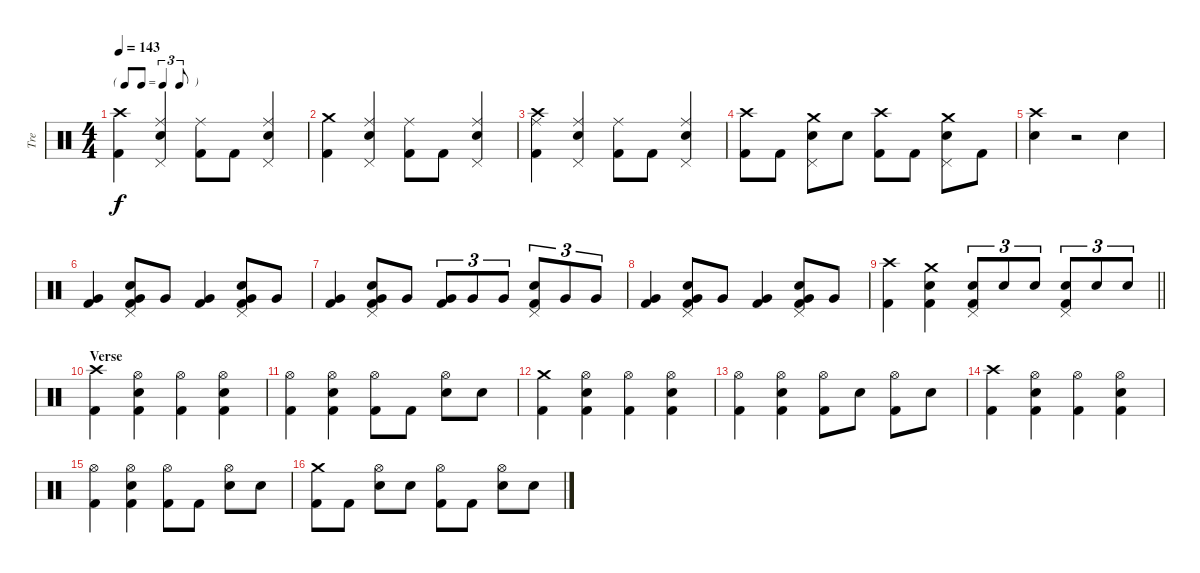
\track ("Tre" "Tre") {instrument percussion}
\staff {score}
\articulation defaults
\ts (4 4)
\tf triplet8th
\tempo 143
\clef neutral
\ks c
("Crash high (hit)" "Kick (hit) 2").4{dy f} ("Ride (middle)" "Snare (hit) 2" "Pedal Hi-Hat (hit)").4 ("Ride (middle)" "Kick (hit) 2").8 "Kick (hit) 2".8 ("Ride (middle)" "Snare (hit) 2" "Pedal Hi-Hat (hit)").4 |
("Crash medium (hit)" "Kick (hit) 2").4 ("Ride (middle)" "Snare (hit) 2" "Pedal Hi-Hat (hit)").4 ("Ride (middle)" "Kick (hit) 2").8 "Kick (hit) 2".8 ("Ride (middle)" "Snare (hit) 2" "Pedal Hi-Hat (hit)").4 |
("Crash high (hit)" "Ride (middle)" "Kick (hit) 2").4 ("Ride (middle)" "Snare (hit) 2" "Pedal Hi-Hat (hit)").4 ("Ride (middle)" "Kick (hit) 2").8 "Kick (hit) 2".8 ("Ride (middle)" "Snare (hit) 2" "Pedal Hi-Hat (hit)").4 |
("Crash high (hit)" "Kick (hit) 2").8 "Kick (hit) 2".8 ("Crash medium (hit)" "Snare (hit) 2" "Pedal Hi-Hat (hit)").8 "Snare (hit) 2".8 ("Crash high (hit)" "Kick (hit) 2").8 "Kick (hit) 2".8 ("Crash medium (hit)" "Snare (hit) 2" "Pedal Hi-Hat (hit)").8 "Kick (hit) 2".8 |
("Crash high (hit)" "Snare (hit) 2").4 r.2 "Snare (hit) 2".4 |
("Very Low Tom (hit)" "Kick (hit) 2").4 ("Pedal Hi-Hat (hit)" "Snare (hit) 2" "Very Low Tom (hit)" "Kick (hit) 2").8 "Very Low Tom (hit)".8 ("Very Low Tom (hit)" "Kick (hit) 2").4 ("Pedal Hi-Hat (hit)" "Snare (hit) 2" "Very Low Tom (hit)" "Kick (hit) 2").8 "Very Low Tom (hit)".8 |
("Very Low Tom (hit)" "Kick (hit) 2").4 ("Pedal Hi-Hat (hit)" "Snare (hit) 2" "Very Low Tom (hit)" "Kick (hit) 2").8 "Very Low Tom (hit)".8 ("Very Low Tom (hit)" "Kick (hit) 2").8{tu (3 2)} "Very Low Tom (hit)".8{tu (3 2)} "Very Low Tom (hit)".8{tu (3 2)} ("Snare (hit) 2" "Pedal Hi-Hat (hit)" "Kick (hit) 2").8{tu (3 2)} "Very Low Tom (hit)".8{tu (3 2)} "Very Low Tom (hit)".8{tu (3 2)} |
("Very Low Tom (hit)" "Kick (hit) 2").4 ("Pedal Hi-Hat (hit)" "Snare (hit) 2" "Very Low Tom (hit)" "Kick (hit) 2").8 "Very Low Tom (hit)".8 ("Very Low Tom (hit)" "Kick (hit) 2").4 ("Pedal Hi-Hat (hit)" "Snare (hit) 2" "Very Low Tom (hit)" "Kick (hit) 2").8 "Very Low Tom (hit)".8 |
\barLineRight lightlight
("Crash high (hit)" "Kick (hit) 2").4 ("Crash medium (hit)" "Snare (hit) 2" "Kick (hit) 2").4 ("Snare (hit) 2" "Pedal Hi-Hat (hit)" "Kick (hit) 2").8{tu (3 2)} "Snare (hit) 2".8{tu (3 2)} "Snare (hit) 2".8{tu (3 2)} ("Snare (hit) 2" "Pedal Hi-Hat (hit)" "Kick (hit) 2").8{tu (3 2)} "Snare (hit) 2".8{tu (3 2)} "Snare (hit) 2".8{tu (3 2)} |
\section ("" "Verse")
("Crash high (hit)" "Kick (hit) 2").4 ("Hi-Hat (open)" "Snare (hit) 2" "Kick (hit) 2").4 ("Hi-Hat (open)" "Kick (hit) 2").4 ("Hi-Hat (open)" "Snare (hit) 2" "Kick (hit) 2").4 |
("Hi-Hat (open)" "Kick (hit) 2").4 ("Hi-Hat (open)" "Snare (hit) 2" "Kick (hit) 2").4 ("Hi-Hat (open)" "Kick (hit) 2").8 "Kick (hit) 2".8 ("Hi-Hat (open)" "Snare (hit) 2").8 "Snare (hit) 2".8 |
("Crash medium (hit)" "Kick (hit) 2").4 ("Hi-Hat (open)" "Snare (hit) 2" "Kick (hit) 2").4 ("Hi-Hat (open)" "Kick (hit) 2").4 ("Hi-Hat (open)" "Snare (hit) 2" "Kick (hit) 2").4 |
("Hi-Hat (open)" "Kick (hit) 2").4 ("Hi-Hat (open)" "Snare (hit) 2" "Kick (hit) 2").4 ("Hi-Hat (open)" "Kick (hit) 2").8 "Snare (hit) 2".8 ("Hi-Hat (open)" "Kick (hit) 2").8 "Snare (hit) 2".8 |
("Crash high (hit)" "Kick (hit) 2").4 ("Hi-Hat (open)" "Snare (hit) 2" "Kick (hit) 2").4 ("Hi-Hat (open)" "Kick (hit) 2").4 ("Hi-Hat (open)" "Snare (hit) 2" "Kick (hit) 2").4 |
("Hi-Hat (open)" "Kick (hit) 2").4 ("Hi-Hat (open)" "Snare (hit) 2" "Kick (hit) 2").4 ("Hi-Hat (open)" "Kick (hit) 2").8 "Kick (hit) 2".8 ("Hi-Hat (open)" "Snare (hit) 2").8 "Snare (hit) 2".8 |
("Crash medium (hit)" "Kick (hit) 2").8 "Kick (hit) 2".8 ("Hi-Hat (open)" "Snare (hit) 2").8 "Snare (hit) 2".8 ("Hi-Hat (open)" "Kick (hit) 2").8 "Kick (hit) 2".8 ("Hi-Hat (open)" "Snare (hit) 2").8 "Snare (hit) 2".8
